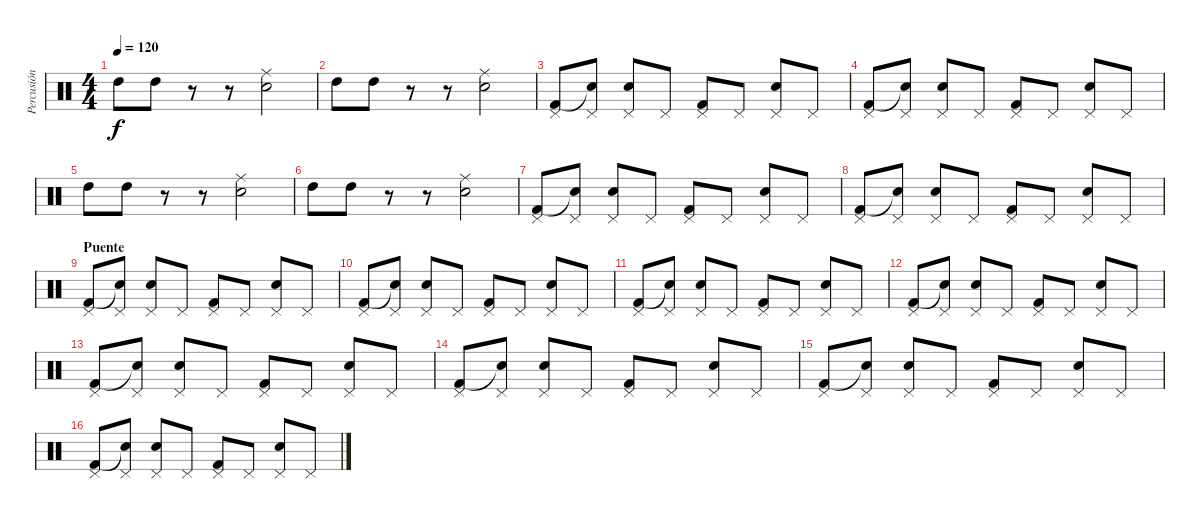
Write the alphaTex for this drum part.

\track ("Percusión" "Percusión") {instrument percussion}
\staff {score}
\articulation defaults
\ts (4 4)
\tempo 120
\clef neutral
\ks c "High Tom (hit)".8{dy f} "High Tom (hit)".8
r.8 r.8 ("Snare (hit) 2" "Ride (middle)").2 |
"High Tom (hit)".8 "High Tom (hit)".8 r.8 r.8 ("Snare (hit) 2" "Ride (middle)").2 |
("Pedal Hi-Hat (hit)" "Kick (hit) 2").8 ("Pedal Hi-Hat (hit)" "Snare (hit)"{t}).8 ("Pedal Hi-Hat (hit)" "Snare (hit) 2").8 "Pedal Hi-Hat (hit)".8 ("Pedal Hi-Hat (hit)" "Kick (hit) 2").8 "Pedal Hi-Hat (hit)".8 ("Pedal Hi-Hat (hit)" "Snare (hit) 2").8 "Pedal Hi-Hat (hit)".8 |
("Pedal Hi-Hat (hit)" "Kick (hit) 2").8 ("Pedal Hi-Hat (hit)" "Snare (hit)"{t}).8 ("Pedal Hi-Hat (hit)" "Snare (hit) 2").8 "Pedal Hi-Hat (hit)".8 ("Pedal Hi-Hat (hit)" "Kick (hit) 2").8 "Pedal Hi-Hat (hit)".8 ("Pedal Hi-Hat (hit)" "Snare (hit) 2").8 "Pedal Hi-Hat (hit)".8 |
"High Tom (hit)".8 "High Tom (hit)".8 r.8 r.8 ("Snare (hit) 2" "Ride (middle)").2 |
"High Tom (hit)".8 "High Tom (hit)".8 r.8 r.8 ("Snare (hit) 2" "Ride (middle)").2 |
("Pedal Hi-Hat (hit)" "Kick (hit) 2").8 ("Pedal Hi-Hat (hit)" "Snare (hit)"{t}).8 ("Pedal Hi-Hat (hit)" "Snare (hit) 2").8 "Pedal Hi-Hat (hit)".8 ("Pedal Hi-Hat (hit)" "Kick (hit) 2").8 "Pedal Hi-Hat (hit)".8 ("Pedal Hi-Hat (hit)" "Snare (hit) 2").8 "Pedal Hi-Hat (hit)".8 |
("Pedal Hi-Hat (hit)" "Kick (hit) 2").8 ("Pedal Hi-Hat (hit)" "Snare (hit)"{t}).8 ("Pedal Hi-Hat (hit)" "Snare (hit) 2").8 "Pedal Hi-Hat (hit)".8 ("Pedal Hi-Hat (hit)" "Kick (hit) 2").8 "Pedal Hi-Hat (hit)".8 ("Pedal Hi-Hat (hit)" "Snare (hit) 2").8 "Pedal Hi-Hat (hit)".8 |
\section ("" "Puente")
("Pedal Hi-Hat (hit)" "Kick (hit) 2").8 ("Pedal Hi-Hat (hit)" "Snare (hit)"{t}).8 ("Pedal Hi-Hat (hit)" "Snare (hit) 2").8 "Pedal Hi-Hat (hit)".8 ("Pedal Hi-Hat (hit)" "Kick (hit) 2").8 "Pedal Hi-Hat (hit)".8 ("Pedal Hi-Hat (hit)" "Snare (hit) 2").8 "Pedal Hi-Hat (hit)".8 |
("Pedal Hi-Hat (hit)" "Kick (hit) 2").8 ("Pedal Hi-Hat (hit)" "Snare (hit)"{t}).8 ("Pedal Hi-Hat (hit)" "Snare (hit) 2").8 "Pedal Hi-Hat (hit)".8 ("Pedal Hi-Hat (hit)" "Kick (hit) 2").8 "Pedal Hi-Hat (hit)".8 ("Pedal Hi-Hat (hit)" "Snare (hit) 2").8 "Pedal Hi-Hat (hit)".8 |
("Pedal Hi-Hat (hit)" "Kick (hit) 2").8 ("Pedal Hi-Hat (hit)" "Snare (hit)"{t}).8 ("Pedal Hi-Hat (hit)" "Snare (hit) 2").8 "Pedal Hi-Hat (hit)".8 ("Pedal Hi-Hat (hit)" "Kick (hit) 2").8 "Pedal Hi-Hat (hit)".8 ("Pedal Hi-Hat (hit)" "Snare (hit) 2").8 "Pedal Hi-Hat (hit)".8 |
("Pedal Hi-Hat (hit)" "Kick (hit) 2").8 ("Pedal Hi-Hat (hit)" "Snare (hit)"{t}).8 ("Pedal Hi-Hat (hit)" "Snare (hit) 2").8 "Pedal Hi-Hat (hit)".8 ("Pedal Hi-Hat (hit)" "Kick (hit) 2").8 "Pedal Hi-Hat (hit)".8 ("Pedal Hi-Hat (hit)" "Snare (hit) 2").8 "Pedal Hi-Hat (hit)".8 |
("Pedal Hi-Hat (hit)" "Kick (hit) 2").8 ("Pedal Hi-Hat (hit)" "Snare (hit)"{t}).8 ("Pedal Hi-Hat (hit)" "Snare (hit) 2").8 "Pedal Hi-Hat (hit)".8 ("Pedal Hi-Hat (hit)" "Kick (hit) 2").8 "Pedal Hi-Hat (hit)".8 ("Pedal Hi-Hat (hit)" "Snare (hit) 2").8 "Pedal Hi-Hat (hit)".8 |
("Pedal Hi-Hat (hit)" "Kick (hit) 2").8 ("Pedal Hi-Hat (hit)" "Snare (hit)"{t}).8 ("Pedal Hi-Hat (hit)" "Snare (hit) 2").8 "Pedal Hi-Hat (hit)".8 ("Pedal Hi-Hat (hit)" "Kick (hit) 2").8 "Pedal Hi-Hat (hit)".8 ("Pedal Hi-Hat (hit)" "Snare (hit) 2").8 "Pedal Hi-Hat (hit)".8 |
("Pedal Hi-Hat (hit)" "Kick (hit) 2").8 ("Pedal Hi-Hat (hit)" "Snare (hit)"{t}).8 ("Pedal Hi-Hat (hit)" "Snare (hit) 2").8 "Pedal Hi-Hat (hit)".8 ("Pedal Hi-Hat (hit)" "Kick (hit) 2").8 "Pedal Hi-Hat (hit)".8 ("Pedal Hi-Hat (hit)" "Snare (hit) 2").8 "Pedal Hi-Hat (hit)".8 |
("Pedal Hi-Hat (hit)" "Kick (hit) 2").8 ("Pedal Hi-Hat (hit)" "Snare (hit)"{t}).8 ("Pedal Hi-Hat (hit)" "Snare (hit) 2").8 "Pedal Hi-Hat (hit)".8 ("Pedal Hi-Hat (hit)" "Kick (hit) 2").8 "Pedal Hi-Hat (hit)".8 ("Pedal Hi-Hat (hit)" "Snare (hit) 2").8 "Pedal Hi-Hat (hit)".8
